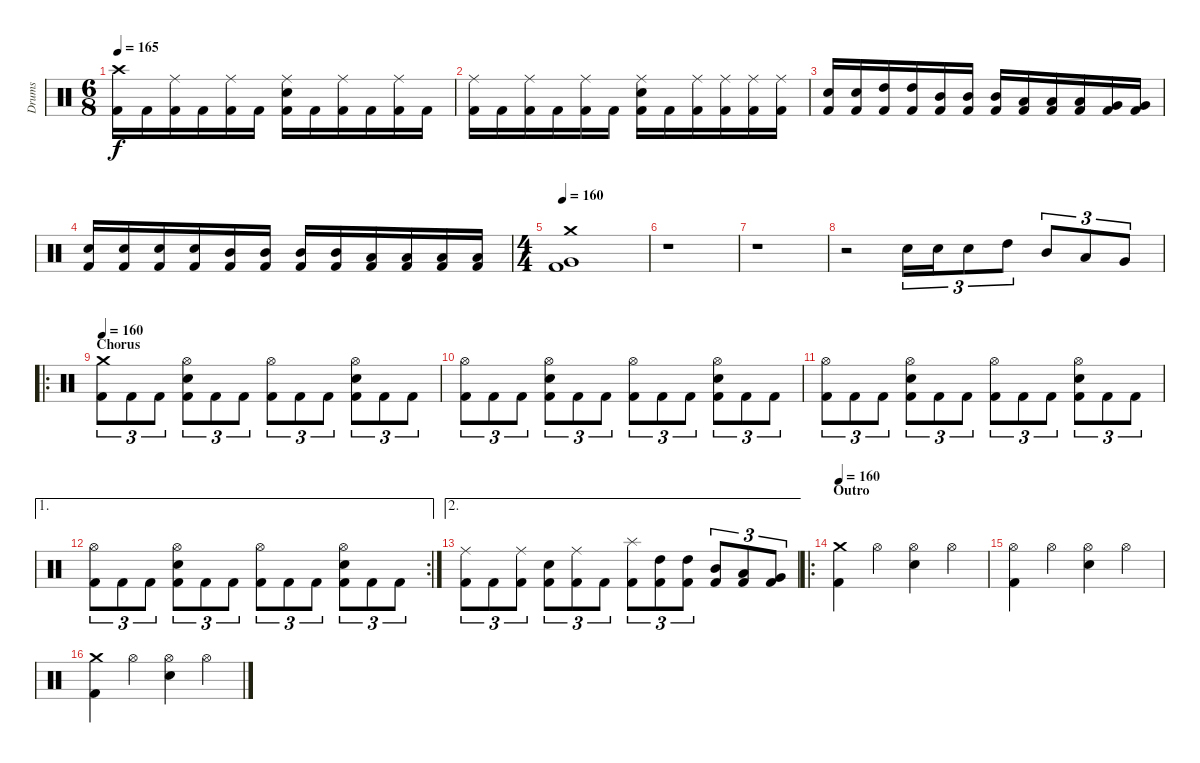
\track ("Drums" "Drums") {instrument percussion}
\staff {score}
\articulation defaults
\ts (6 8)
\tempo 165
\clef neutral
\ks c
("Kick (hit) 2" "Crash high (hit)").16{dy f} "Kick (hit) 2".16 ("Kick (hit) 2" "Ride (middle)").16 "Kick (hit) 2".16 ("Kick (hit) 2" "Ride (middle)").16 "Kick (hit) 2".16 ("Kick (hit) 2" "Electric Snare (hit)" "Ride (middle)").16 "Kick (hit) 2".16 ("Kick (hit) 2" "Ride (middle)").16 "Kick (hit) 2".16 ("Kick (hit) 2" "Ride (middle)").16 "Kick (hit) 2".16 |
("Kick (hit) 2" "Ride (middle)").16 "Kick (hit) 2".16 ("Kick (hit) 2" "Ride (middle)").16 "Kick (hit) 2".16 ("Kick (hit) 2" "Ride (middle)").16 "Kick (hit) 2".16 ("Kick (hit) 2" "Electric Snare (hit)" "Ride (middle)").16 "Kick (hit) 2".16 ("Kick (hit) 2" "Ride (middle)").16 ("Kick (hit) 2" "Ride (middle)").16 ("Kick (hit) 2" "Ride (middle)").16 ("Kick (hit) 2" "Ride (middle)").16 |
("Kick (hit) 2" "Electric Snare (hit)").16 ("Kick (hit) 2" "Electric Snare (hit)").16 ("Kick (hit) 2" "High Tom (hit)").16 ("Kick (hit) 2" "High Tom (hit)").16 ("Kick (hit) 2" "Mid Tom (hit)").16 ("Kick (hit) 2" "Mid Tom (hit)").16 ("Kick (hit) 2" "Mid Tom (hit)").16 ("Kick (hit) 2" "Low Tom (hit)").16 ("Kick (hit) 2" "Low Tom (hit)").16 ("Kick (hit) 2" "Low Tom (hit)").16 ("Kick (hit) 2" "Very Low Tom (hit)").16 ("Kick (hit) 2" "Very Low Tom (hit)").16 |
("Kick (hit) 2" "Electric Snare (hit)").16 ("Kick (hit) 2" "Electric Snare (hit)").16 ("Kick (hit) 2" "Electric Snare (hit)").16 ("Kick (hit) 2" "Electric Snare (hit)").16 ("Kick (hit) 2" "Mid Tom (hit)").16 ("Kick (hit) 2" "Mid Tom (hit)").16 ("Kick (hit) 2" "Mid Tom (hit)").16 ("Kick (hit) 2" "Mid Tom (hit)").16 ("Kick (hit) 2" "Low Tom (hit)").16 ("Kick (hit) 2" "Low Tom (hit)").16 ("Kick (hit) 2" "Low Tom (hit)").16 ("Kick (hit) 2" "Low Tom (hit)").16 |
\ts (4 4)
\tempo 160
("Kick (hit) 2" "Very Low Tom (hit)" "Crash medium (hit)").1 |
r.1 |
r.1 |
r.2 "Electric Snare (hit)".16{tu (3 2)} "Electric Snare (hit)".16{tu (3 2)} "Electric Snare (hit)".8{tu (3 2)} "High Tom (hit)".8{tu (3 2)} "Mid Tom (hit)".8{tu (3 2)} "Low Tom (hit)".8{tu (3 2)} "Very Low Tom (hit)".8{tu (3 2)} |
\ro
\section ("" "Chorus")
\tempo 160
("Kick (hit) 2" "Crash medium (hit)").8{tu (3 2)} "Kick (hit) 2".8{tu (3 2)} "Kick (hit) 2".8{tu (3 2)} ("Kick (hit) 2" "Electric Snare (hit)" "Hi-Hat (open)").8{tu (3 2)} "Kick (hit) 2".8{tu (3 2)} "Kick (hit) 2".8{tu (3 2)} ("Kick (hit) 2" "Hi-Hat (open)").8{tu (3 2)} "Kick (hit) 2".8{tu (3 2)} "Kick (hit) 2".8{tu (3 2)} ("Kick (hit) 2" "Electric Snare (hit)" "Hi-Hat (open)").8{tu (3 2)} "Kick (hit) 2".8{tu (3 2)} "Kick (hit) 2".8{tu (3 2)} |
("Kick (hit) 2" "Hi-Hat (open)").8{tu (3 2)} "Kick (hit) 2".8{tu (3 2)} "Kick (hit) 2".8{tu (3 2)} ("Kick (hit) 2" "Electric Snare (hit)" "Hi-Hat (open)").8{tu (3 2)} "Kick (hit) 2".8{tu (3 2)} "Kick (hit) 2".8{tu (3 2)} ("Kick (hit) 2" "Hi-Hat (open)").8{tu (3 2)} "Kick (hit) 2".8{tu (3 2)} "Kick (hit) 2".8{tu (3 2)} ("Kick (hit) 2" "Electric Snare (hit)" "Hi-Hat (open)").8{tu (3 2)} "Kick (hit) 2".8{tu (3 2)} "Kick (hit) 2".8{tu (3 2)} |
("Kick (hit) 2" "Hi-Hat (open)").8{tu (3 2)} "Kick (hit) 2".8{tu (3 2)} "Kick (hit) 2".8{tu (3 2)} ("Kick (hit) 2" "Electric Snare (hit)" "Hi-Hat (open)").8{tu (3 2)} "Kick (hit) 2".8{tu (3 2)} "Kick (hit) 2".8{tu (3 2)} ("Kick (hit) 2" "Hi-Hat (open)").8{tu (3 2)} "Kick (hit) 2".8{tu (3 2)} "Kick (hit) 2".8{tu (3 2)} ("Kick (hit) 2" "Electric Snare (hit)" "Hi-Hat (open)").8{tu (3 2)} "Kick (hit) 2".8{tu (3 2)} "Kick (hit) 2".8{tu (3 2)} |
\ae 1
\rc 2
("Kick (hit) 2" "Hi-Hat (open)").8{tu (3 2)} "Kick (hit) 2".8{tu (3 2)} "Kick (hit) 2".8{tu (3 2)} ("Kick (hit) 2" "Electric Snare (hit)" "Hi-Hat (open)").8{tu (3 2)} "Kick (hit) 2".8{tu (3 2)} "Kick (hit) 2".8{tu (3 2)} ("Kick (hit) 2" "Hi-Hat (open)").8{tu (3 2)} "Kick (hit) 2".8{tu (3 2)} "Kick (hit) 2".8{tu (3 2)} ("Kick (hit) 2" "Electric Snare (hit)" "Hi-Hat (open)").8{tu (3 2)} "Kick (hit) 2".8{tu (3 2)} "Kick (hit) 2".8{tu (3 2)} |
\ae 2
("Kick (hit) 2" "Ride (middle)").8{tu (3 2)} "Kick (hit) 2".8{tu (3 2)} ("Kick (hit) 2" "Ride (middle)").8{tu (3 2)} ("Kick (hit) 2" "Electric Snare (hit)").8{tu (3 2)} ("Kick (hit) 2" "Ride (middle)").8{tu (3 2)} "Kick (hit) 2".8{tu (3 2)} ("Kick (hit) 2" "Splash (hit)").8{tu (3 2)} ("Kick (hit) 2" "High Tom (hit)").8{tu (3 2)} ("Kick (hit) 2" "High Tom (hit)").8{tu (3 2)} ("Kick (hit) 2" "Mid Tom (hit)").8{tu (3 2)} ("Kick (hit) 2" "Low Tom (hit)").8{tu (3 2)} ("Kick (hit) 2" "Very Low Tom (hit)").8{tu (3 2)} |
\ro
\section ("" "Outro")
\tempo 160
("Kick (hit) 2" "Crash medium (hit)").4 "Hi-Hat (open)".4 ("Electric Snare (hit)" "Hi-Hat (open)").4 "Hi-Hat (open)".4 |
("Kick (hit) 2" "Hi-Hat (open)").4 "Hi-Hat (open)".4 ("Electric Snare (hit)" "Hi-Hat (open)").4 "Hi-Hat (open)".4 |
("Kick (hit) 2" "Crash medium (hit)").4 "Hi-Hat (open)".4 ("Electric Snare (hit)" "Hi-Hat (open)").4 "Hi-Hat (open)".4
